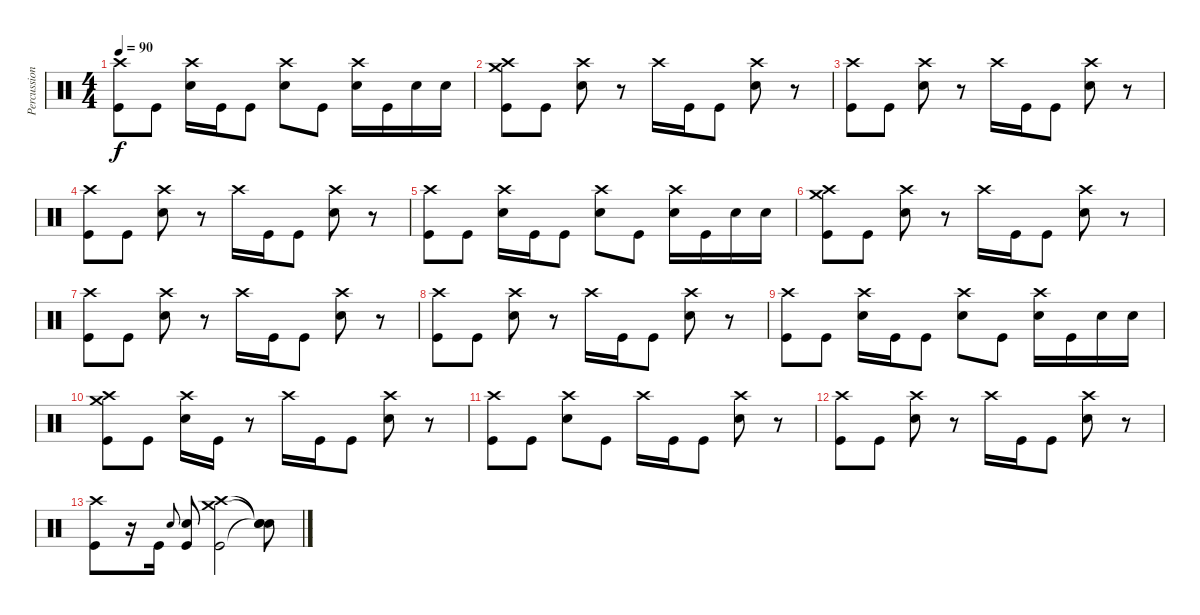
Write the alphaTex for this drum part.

\track ("Percussion" "Percussion") {instrument percussion}
\staff {score}
\articulation defaults
\ts (4 4)
\tempo 90
\clef neutral
\ks c
("Crash high (hit)" "Kick (hit)").8{dy f} "Kick (hit)".8 ("Crash high (hit)" "Electric Snare (hit)").16 "Kick (hit)".16 "Kick (hit)".8 ("Crash high (hit)" "Electric Snare (hit)").8 "Kick (hit)".8 ("Crash high (hit)" "Electric Snare (hit)").16 "Kick (hit)".16 "Electric Snare (hit)".16 "Electric Snare (hit)".16 |
("Crash high (hit)" "Crash medium (hit)" "Kick (hit)").8 "Kick (hit)".8 ("Crash high (hit)" "Electric Snare (hit)").8 r.8 "Crash high (hit)".16 "Kick (hit)".16 "Kick (hit)".8 ("Crash high (hit)" "Electric Snare (hit)").8 r.8 |
("Crash high (hit)" "Kick (hit)").8 "Kick (hit)".8 ("Crash high (hit)" "Electric Snare (hit)").8 r.8 "Crash high (hit)".16 "Kick (hit)".16 "Kick (hit)".8 ("Crash high (hit)" "Electric Snare (hit)").8 r.8 |
("Crash high (hit)" "Kick (hit)").8 "Kick (hit)".8 ("Crash high (hit)" "Electric Snare (hit)").8 r.8 "Crash high (hit)".16 "Kick (hit)".16 "Kick (hit)".8 ("Crash high (hit)" "Electric Snare (hit)").8 r.8 |
("Crash high (hit)" "Kick (hit)").8 "Kick (hit)".8 ("Crash high (hit)" "Electric Snare (hit)").16 "Kick (hit)".16 "Kick (hit)".8 ("Crash high (hit)" "Electric Snare (hit)").8 "Kick (hit)".8 ("Crash high (hit)" "Electric Snare (hit)").16 "Kick (hit)".16 "Electric Snare (hit)".16 "Electric Snare (hit)".16 |
("Crash high (hit)" "Crash medium (hit)" "Kick (hit)").8 "Kick (hit)".8 ("Crash high (hit)" "Electric Snare (hit)").8 r.8 "Crash high (hit)".16 "Kick (hit)".16 "Kick (hit)".8 ("Crash high (hit)" "Electric Snare (hit)").8 r.8 |
("Crash high (hit)" "Kick (hit)").8 "Kick (hit)".8 ("Crash high (hit)" "Electric Snare (hit)").8 r.8 "Crash high (hit)".16 "Kick (hit)".16 "Kick (hit)".8 ("Crash high (hit)" "Electric Snare (hit)").8 r.8 |
("Crash high (hit)" "Kick (hit)").8 "Kick (hit)".8 ("Crash high (hit)" "Electric Snare (hit)").8 r.8 "Crash high (hit)".16 "Kick (hit)".16 "Kick (hit)".8 ("Crash high (hit)" "Electric Snare (hit)").8 r.8 |
("Crash high (hit)" "Kick (hit)").8 "Kick (hit)".8 ("Crash high (hit)" "Electric Snare (hit)").16 "Kick (hit)".16 "Kick (hit)".8 ("Crash high (hit)" "Electric Snare (hit)").8 "Kick (hit)".8 ("Crash high (hit)" "Electric Snare (hit)").16 "Kick (hit)".16 "Electric Snare (hit)".16 "Electric Snare (hit)".16 |
("Crash high (hit)" "Crash medium (hit)" "Kick (hit)").8 "Kick (hit)".8 ("Crash high (hit)" "Electric Snare (hit)").16 "Kick (hit)".16 r.8 "Crash high (hit)".16 "Kick (hit)".16 "Kick (hit)".8 ("Crash high (hit)" "Electric Snare (hit)").8 r.8 |
("Crash high (hit)" "Kick (hit)").8 "Kick (hit)".8 ("Crash high (hit)" "Electric Snare (hit)").8 "Kick (hit)".8 "Crash high (hit)".16 "Kick (hit)".16 "Kick (hit)".8 ("Crash high (hit)" "Electric Snare (hit)").8 r.8 |
("Crash high (hit)" "Kick (hit)").8 "Kick (hit)".8 ("Crash high (hit)" "Electric Snare (hit)").8 r.8 "Crash high (hit)".16 "Kick (hit)".16 "Kick (hit)".8 ("Crash high (hit)" "Electric Snare (hit)").8 r.8 |
("Crash high (hit)" "Kick (hit)").8 r.16 "Kick (hit)".16 "Electric Snare (hit)".8{gr onbeat} ("Electric Snare (hit)" "Kick (hit)").8 ("Crash high (hit)" "Crash medium (hit)" "Kick (hit)").2 ("Snare (hit)"{t} "Snare (hit)"{t} "Snare (hit)"{t}).8
